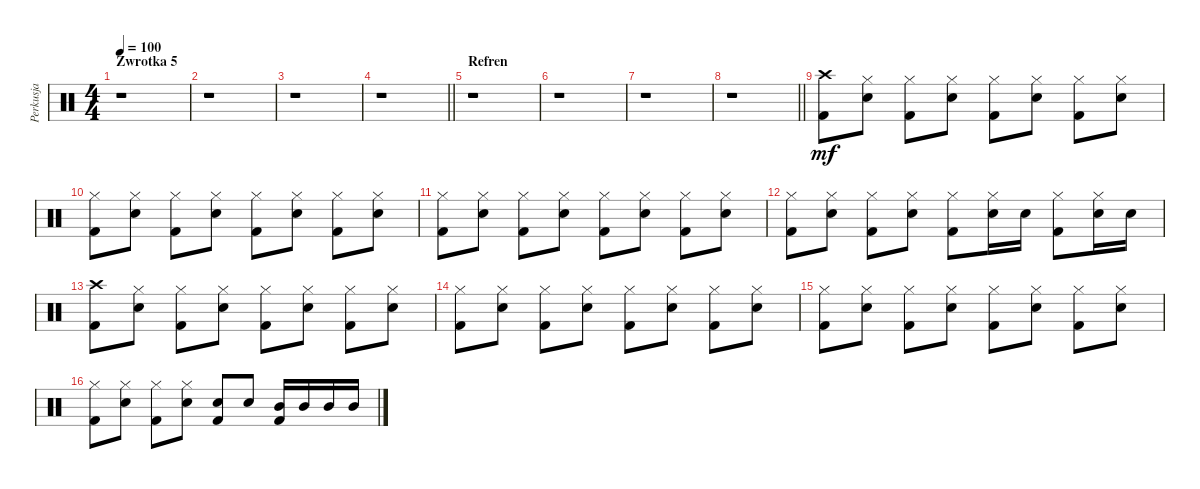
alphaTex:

\track ("Perkusja" "Perkusja") {instrument percussion}
\staff {score}
\articulation defaults
\ts (4 4)
\section ("" "Zwrotka 5")
\tempo 100
\clef neutral
\ks c
r.1{dy f} |
r.1 |
r.1 |
\barLineRight lightlight
r.1 |
\section ("" "Refren")
r.1 |
r.1 |
r.1 |
\barLineRight lightlight
r.1 |
("Kick (hit) 2" "Crash high (hit)").8{dy mf} ("Snare (hit) 2" "Hi-Hat (closed)").8 ("Kick (hit) 2" "Hi-Hat (closed)").8 ("Snare (hit) 2" "Hi-Hat (closed)").8 ("Kick (hit) 2" "Hi-Hat (closed)").8 ("Snare (hit) 2" "Hi-Hat (closed)").8 ("Kick (hit) 2" "Hi-Hat (closed)").8 ("Snare (hit) 2" "Hi-Hat (closed)").8 |
("Kick (hit) 2" "Hi-Hat (closed)").8 ("Snare (hit) 2" "Hi-Hat (closed)").8 ("Kick (hit) 2" "Hi-Hat (closed)").8 ("Snare (hit) 2" "Hi-Hat (closed)").8 ("Kick (hit) 2" "Hi-Hat (closed)").8 ("Snare (hit) 2" "Hi-Hat (closed)").8 ("Kick (hit) 2" "Hi-Hat (closed)").8 ("Snare (hit) 2" "Hi-Hat (closed)").8 |
("Kick (hit) 2" "Hi-Hat (closed)").8 ("Snare (hit) 2" "Hi-Hat (closed)").8 ("Kick (hit) 2" "Hi-Hat (closed)").8 ("Snare (hit) 2" "Hi-Hat (closed)").8 ("Kick (hit) 2" "Hi-Hat (closed)").8 ("Snare (hit) 2" "Hi-Hat (closed)").8 ("Kick (hit) 2" "Hi-Hat (closed)").8 ("Snare (hit) 2" "Hi-Hat (closed)").8 |
("Kick (hit) 2" "Hi-Hat (closed)").8 ("Snare (hit) 2" "Hi-Hat (closed)").8 ("Kick (hit) 2" "Hi-Hat (closed)").8 ("Snare (hit) 2" "Hi-Hat (closed)").8 ("Kick (hit) 2" "Hi-Hat (closed)").8 ("Snare (hit) 2" "Hi-Hat (closed)").16 "Snare (hit) 2".16 ("Kick (hit) 2" "Hi-Hat (closed)").8 ("Snare (hit) 2" "Hi-Hat (closed)").16 "Snare (hit) 2".16 |
("Kick (hit) 2" "Crash high (hit)").8 ("Snare (hit) 2" "Hi-Hat (closed)").8 ("Kick (hit) 2" "Hi-Hat (closed)").8 ("Snare (hit) 2" "Hi-Hat (closed)").8 ("Kick (hit) 2" "Hi-Hat (closed)").8 ("Snare (hit) 2" "Hi-Hat (closed)").8 ("Kick (hit) 2" "Hi-Hat (closed)").8 ("Snare (hit) 2" "Hi-Hat (closed)").8 |
("Kick (hit) 2" "Hi-Hat (closed)").8 ("Snare (hit) 2" "Hi-Hat (closed)").8 ("Kick (hit) 2" "Hi-Hat (closed)").8 ("Snare (hit) 2" "Hi-Hat (closed)").8 ("Kick (hit) 2" "Hi-Hat (closed)").8 ("Snare (hit) 2" "Hi-Hat (closed)").8 ("Kick (hit) 2" "Hi-Hat (closed)").8 ("Snare (hit) 2" "Hi-Hat (closed)").8 |
("Kick (hit) 2" "Hi-Hat (closed)").8 ("Snare (hit) 2" "Hi-Hat (closed)").8 ("Kick (hit) 2" "Hi-Hat (closed)").8 ("Snare (hit) 2" "Hi-Hat (closed)").8 ("Kick (hit) 2" "Hi-Hat (closed)").8 ("Snare (hit) 2" "Hi-Hat (closed)").8 ("Kick (hit) 2" "Hi-Hat (closed)").8 ("Snare (hit) 2" "Hi-Hat (closed)").8 |
("Kick (hit) 2" "Hi-Hat (closed)").8 ("Snare (hit) 2" "Hi-Hat (closed)").8 ("Kick (hit) 2" "Hi-Hat (closed)").8 ("Snare (hit) 2" "Hi-Hat (closed)").8 ("Snare (hit) 2" "Kick (hit) 2").8 "Snare (hit) 2".8 ("Mid Tom (hit)" "Kick (hit) 2").16 "Mid Tom (hit)".16 "Mid Tom (hit)".16 "Mid Tom (hit)".16
